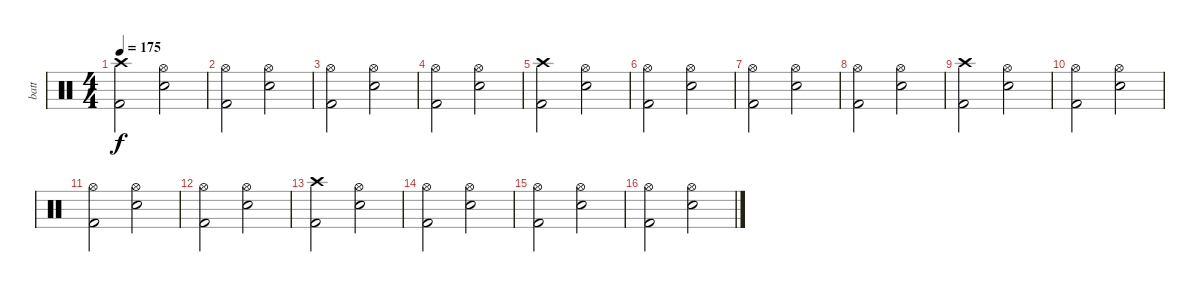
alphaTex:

\track ("batt" "batt") {instrument percussion}
\staff {score}
\articulation defaults
\ts (4 4)
\tempo 175
\clef neutral
\ks c
("Crash high (hit)" "Kick (hit) 2").2{dy f} ("Hi-Hat (open)" "Electric Snare (hit)").2 |
("Hi-Hat (open)" "Kick (hit) 2").2 ("Hi-Hat (open)" "Electric Snare (hit)").2 |
("Hi-Hat (open)" "Kick (hit) 2").2 ("Hi-Hat (open)" "Electric Snare (hit)").2 |
("Hi-Hat (open)" "Kick (hit) 2").2 ("Hi-Hat (open)" "Electric Snare (hit)").2 |
("Crash high (hit)" "Kick (hit) 2").2 ("Hi-Hat (open)" "Electric Snare (hit)").2 |
("Hi-Hat (open)" "Kick (hit) 2").2 ("Hi-Hat (open)" "Electric Snare (hit)").2 |
("Hi-Hat (open)" "Kick (hit) 2").2 ("Hi-Hat (open)" "Electric Snare (hit)").2 |
("Hi-Hat (open)" "Kick (hit) 2").2 ("Hi-Hat (open)" "Electric Snare (hit)").2 |
("Crash high (hit)" "Kick (hit) 2").2 ("Hi-Hat (open)" "Electric Snare (hit)").2 |
("Hi-Hat (open)" "Kick (hit) 2").2 ("Hi-Hat (open)" "Electric Snare (hit)").2 |
("Hi-Hat (open)" "Kick (hit) 2").2 ("Hi-Hat (open)" "Electric Snare (hit)").2 |
("Hi-Hat (open)" "Kick (hit) 2").2 ("Hi-Hat (open)" "Electric Snare (hit)").2 |
("Crash high (hit)" "Kick (hit) 2").2 ("Hi-Hat (open)" "Electric Snare (hit)").2 |
("Hi-Hat (open)" "Kick (hit) 2").2 ("Hi-Hat (open)" "Electric Snare (hit)").2 |
("Hi-Hat (open)" "Kick (hit) 2").2 ("Hi-Hat (open)" "Electric Snare (hit)").2 |
("Hi-Hat (open)" "Kick (hit) 2").2 ("Hi-Hat (open)" "Electric Snare (hit)").2
